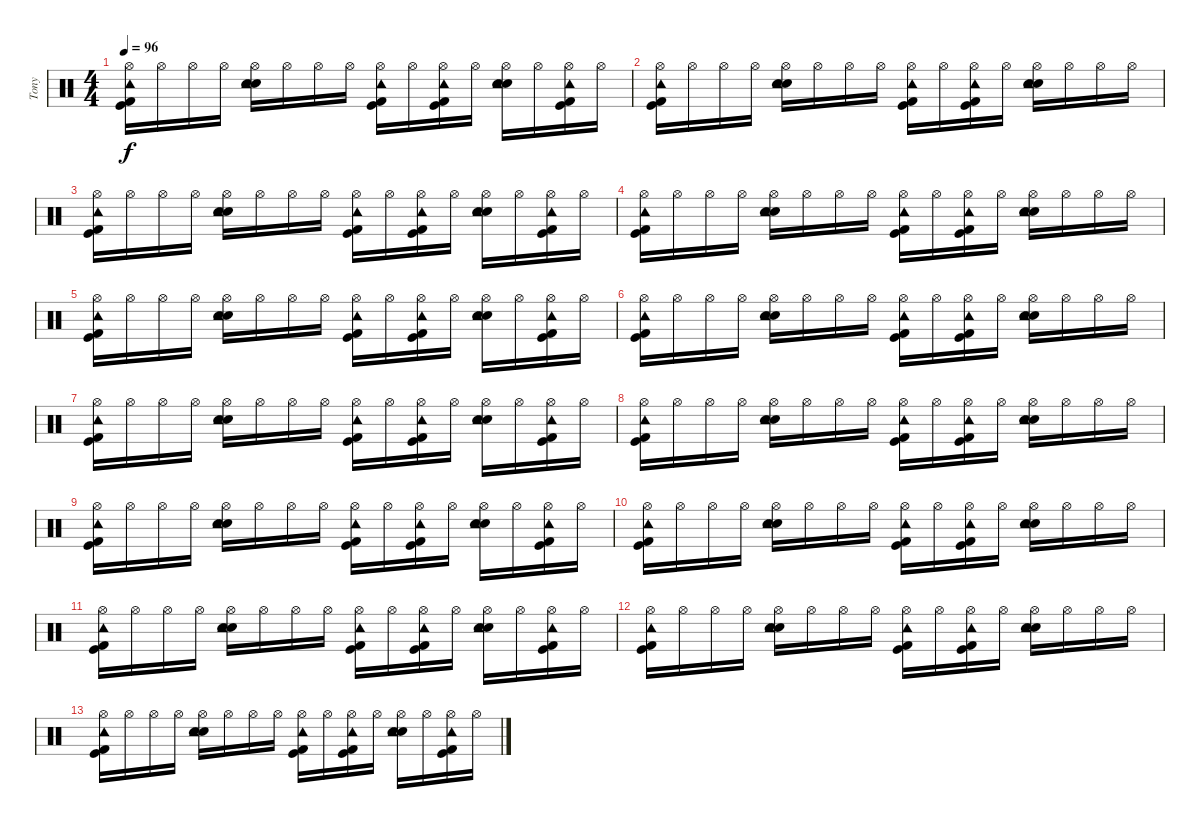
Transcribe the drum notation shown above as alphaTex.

\track ("Tony" "Tony") {instrument percussion}
\staff {score}
\articulation defaults
\ts (4 4)
\tempo 96
\clef neutral
\ks c
("Kick (hit)" "Kick (hit) 2" "Tambourine (hit)" "Hi-Hat (open)").16{dy f} "Hi-Hat (open)".16 "Hi-Hat (open)".16 "Hi-Hat (open)".16 ("Electric Snare (hit)" "Snare (hit) 2" "Tambourine (hit)" "Hi-Hat (open)").16 "Hi-Hat (open)".16 "Hi-Hat (open)".16 "Hi-Hat (open)".16 ("Kick (hit)" "Kick (hit) 2" "Tambourine (hit)" "Hi-Hat (open)").16 "Hi-Hat (open)".16 ("Kick (hit)" "Kick (hit) 2" "Tambourine (hit)" "Hi-Hat (open)").16 "Hi-Hat (open)".16 ("Electric Snare (hit)" "Snare (hit) 2" "Tambourine (hit)" "Hi-Hat (open)").16 "Hi-Hat (open)".16 ("Kick (hit)" "Kick (hit) 2" "Tambourine (hit)" "Hi-Hat (open)").16 "Hi-Hat (open)".16 |
("Kick (hit)" "Kick (hit) 2" "Tambourine (hit)" "Hi-Hat (open)").16 "Hi-Hat (open)".16 "Hi-Hat (open)".16 "Hi-Hat (open)".16 ("Electric Snare (hit)" "Snare (hit) 2" "Tambourine (hit)" "Hi-Hat (open)").16 "Hi-Hat (open)".16 "Hi-Hat (open)".16 "Hi-Hat (open)".16 ("Kick (hit)" "Kick (hit) 2" "Tambourine (hit)" "Hi-Hat (open)").16 "Hi-Hat (open)".16 ("Kick (hit)" "Kick (hit) 2" "Tambourine (hit)" "Hi-Hat (open)").16 "Hi-Hat (open)".16 ("Electric Snare (hit)" "Snare (hit) 2" "Tambourine (hit)" "Hi-Hat (open)").16 "Hi-Hat (open)".16 "Hi-Hat (open)".16 "Hi-Hat (open)".16 |
("Kick (hit)" "Kick (hit) 2" "Tambourine (hit)" "Hi-Hat (open)").16 "Hi-Hat (open)".16 "Hi-Hat (open)".16 "Hi-Hat (open)".16 ("Electric Snare (hit)" "Snare (hit) 2" "Tambourine (hit)" "Hi-Hat (open)").16 "Hi-Hat (open)".16 "Hi-Hat (open)".16 "Hi-Hat (open)".16 ("Kick (hit)" "Kick (hit) 2" "Tambourine (hit)" "Hi-Hat (open)").16 "Hi-Hat (open)".16 ("Kick (hit)" "Kick (hit) 2" "Tambourine (hit)" "Hi-Hat (open)").16 "Hi-Hat (open)".16 ("Electric Snare (hit)" "Snare (hit) 2" "Tambourine (hit)" "Hi-Hat (open)").16 "Hi-Hat (open)".16 ("Kick (hit)" "Kick (hit) 2" "Tambourine (hit)" "Hi-Hat (open)").16 "Hi-Hat (open)".16 |
("Kick (hit)" "Kick (hit) 2" "Tambourine (hit)" "Hi-Hat (open)").16 "Hi-Hat (open)".16 "Hi-Hat (open)".16 "Hi-Hat (open)".16 ("Electric Snare (hit)" "Snare (hit) 2" "Tambourine (hit)" "Hi-Hat (open)").16 "Hi-Hat (open)".16 "Hi-Hat (open)".16 "Hi-Hat (open)".16 ("Kick (hit)" "Kick (hit) 2" "Tambourine (hit)" "Hi-Hat (open)").16 "Hi-Hat (open)".16 ("Kick (hit)" "Kick (hit) 2" "Tambourine (hit)" "Hi-Hat (open)").16 "Hi-Hat (open)".16 ("Electric Snare (hit)" "Snare (hit) 2" "Tambourine (hit)" "Hi-Hat (open)").16 "Hi-Hat (open)".16 "Hi-Hat (open)".16 "Hi-Hat (open)".16 |
("Kick (hit)" "Kick (hit) 2" "Tambourine (hit)" "Hi-Hat (open)").16 "Hi-Hat (open)".16 "Hi-Hat (open)".16 "Hi-Hat (open)".16 ("Electric Snare (hit)" "Snare (hit) 2" "Tambourine (hit)" "Hi-Hat (open)").16 "Hi-Hat (open)".16 "Hi-Hat (open)".16 "Hi-Hat (open)".16 ("Kick (hit)" "Kick (hit) 2" "Tambourine (hit)" "Hi-Hat (open)").16 "Hi-Hat (open)".16 ("Kick (hit)" "Kick (hit) 2" "Tambourine (hit)" "Hi-Hat (open)").16 "Hi-Hat (open)".16 ("Electric Snare (hit)" "Snare (hit) 2" "Tambourine (hit)" "Hi-Hat (open)").16 "Hi-Hat (open)".16 ("Kick (hit)" "Kick (hit) 2" "Tambourine (hit)" "Hi-Hat (open)").16 "Hi-Hat (open)".16 |
("Kick (hit)" "Kick (hit) 2" "Tambourine (hit)" "Hi-Hat (open)").16 "Hi-Hat (open)".16 "Hi-Hat (open)".16 "Hi-Hat (open)".16 ("Electric Snare (hit)" "Snare (hit) 2" "Tambourine (hit)" "Hi-Hat (open)").16 "Hi-Hat (open)".16 "Hi-Hat (open)".16 "Hi-Hat (open)".16 ("Kick (hit)" "Kick (hit) 2" "Tambourine (hit)" "Hi-Hat (open)").16 "Hi-Hat (open)".16 ("Kick (hit)" "Kick (hit) 2" "Tambourine (hit)" "Hi-Hat (open)").16 "Hi-Hat (open)".16 ("Electric Snare (hit)" "Snare (hit) 2" "Tambourine (hit)" "Hi-Hat (open)").16 "Hi-Hat (open)".16 "Hi-Hat (open)".16 "Hi-Hat (open)".16 |
("Kick (hit)" "Kick (hit) 2" "Tambourine (hit)" "Hi-Hat (open)").16{volume 5} "Hi-Hat (open)".16 "Hi-Hat (open)".16 "Hi-Hat (open)".16 ("Electric Snare (hit)" "Snare (hit) 2" "Tambourine (hit)" "Hi-Hat (open)").16 "Hi-Hat (open)".16 "Hi-Hat (open)".16 "Hi-Hat (open)".16 ("Kick (hit)" "Kick (hit) 2" "Tambourine (hit)" "Hi-Hat (open)").16 "Hi-Hat (open)".16 ("Kick (hit)" "Kick (hit) 2" "Tambourine (hit)" "Hi-Hat (open)").16 "Hi-Hat (open)".16 ("Electric Snare (hit)" "Snare (hit) 2" "Tambourine (hit)" "Hi-Hat (open)").16 "Hi-Hat (open)".16 ("Kick (hit)" "Kick (hit) 2" "Tambourine (hit)" "Hi-Hat (open)").16 "Hi-Hat (open)".16 |
("Kick (hit)" "Kick (hit) 2" "Tambourine (hit)" "Hi-Hat (open)").16 "Hi-Hat (open)".16 "Hi-Hat (open)".16 "Hi-Hat (open)".16 ("Electric Snare (hit)" "Snare (hit) 2" "Tambourine (hit)" "Hi-Hat (open)").16 "Hi-Hat (open)".16 "Hi-Hat (open)".16 "Hi-Hat (open)".16 ("Kick (hit)" "Kick (hit) 2" "Tambourine (hit)" "Hi-Hat (open)").16 "Hi-Hat (open)".16 ("Kick (hit)" "Kick (hit) 2" "Tambourine (hit)" "Hi-Hat (open)").16 "Hi-Hat (open)".16 ("Electric Snare (hit)" "Snare (hit) 2" "Tambourine (hit)" "Hi-Hat (open)").16 "Hi-Hat (open)".16 "Hi-Hat (open)".16 "Hi-Hat (open)".16 |
("Kick (hit)" "Kick (hit) 2" "Tambourine (hit)" "Hi-Hat (open)").16{volume 0} "Hi-Hat (open)".16 "Hi-Hat (open)".16 "Hi-Hat (open)".16 ("Electric Snare (hit)" "Snare (hit) 2" "Tambourine (hit)" "Hi-Hat (open)").16 "Hi-Hat (open)".16 "Hi-Hat (open)".16 "Hi-Hat (open)".16 ("Kick (hit)" "Kick (hit) 2" "Tambourine (hit)" "Hi-Hat (open)").16 "Hi-Hat (open)".16 ("Kick (hit)" "Kick (hit) 2" "Tambourine (hit)" "Hi-Hat (open)").16 "Hi-Hat (open)".16 ("Electric Snare (hit)" "Snare (hit) 2" "Tambourine (hit)" "Hi-Hat (open)").16 "Hi-Hat (open)".16 ("Kick (hit)" "Kick (hit) 2" "Tambourine (hit)" "Hi-Hat (open)").16 "Hi-Hat (open)".16 |
("Kick (hit)" "Kick (hit) 2" "Tambourine (hit)" "Hi-Hat (open)").16 "Hi-Hat (open)".16 "Hi-Hat (open)".16 "Hi-Hat (open)".16 ("Electric Snare (hit)" "Snare (hit) 2" "Tambourine (hit)" "Hi-Hat (open)").16 "Hi-Hat (open)".16 "Hi-Hat (open)".16 "Hi-Hat (open)".16 ("Kick (hit)" "Kick (hit) 2" "Tambourine (hit)" "Hi-Hat (open)").16 "Hi-Hat (open)".16 ("Kick (hit)" "Kick (hit) 2" "Tambourine (hit)" "Hi-Hat (open)").16 "Hi-Hat (open)".16 ("Electric Snare (hit)" "Snare (hit) 2" "Tambourine (hit)" "Hi-Hat (open)").16 "Hi-Hat (open)".16 "Hi-Hat (open)".16 "Hi-Hat (open)".16 |
("Kick (hit)" "Kick (hit) 2" "Tambourine (hit)" "Hi-Hat (open)").16 "Hi-Hat (open)".16 "Hi-Hat (open)".16 "Hi-Hat (open)".16 ("Electric Snare (hit)" "Snare (hit) 2" "Tambourine (hit)" "Hi-Hat (open)").16 "Hi-Hat (open)".16 "Hi-Hat (open)".16 "Hi-Hat (open)".16 ("Kick (hit)" "Kick (hit) 2" "Tambourine (hit)" "Hi-Hat (open)").16 "Hi-Hat (open)".16 ("Kick (hit)" "Kick (hit) 2" "Tambourine (hit)" "Hi-Hat (open)").16 "Hi-Hat (open)".16 ("Electric Snare (hit)" "Snare (hit) 2" "Tambourine (hit)" "Hi-Hat (open)").16 "Hi-Hat (open)".16 ("Kick (hit)" "Kick (hit) 2" "Tambourine (hit)" "Hi-Hat (open)").16 "Hi-Hat (open)".16 |
("Kick (hit)" "Kick (hit) 2" "Tambourine (hit)" "Hi-Hat (open)").16 "Hi-Hat (open)".16 "Hi-Hat (open)".16 "Hi-Hat (open)".16 ("Electric Snare (hit)" "Snare (hit) 2" "Tambourine (hit)" "Hi-Hat (open)").16 "Hi-Hat (open)".16 "Hi-Hat (open)".16 "Hi-Hat (open)".16 ("Kick (hit)" "Kick (hit) 2" "Tambourine (hit)" "Hi-Hat (open)").16 "Hi-Hat (open)".16 ("Kick (hit)" "Kick (hit) 2" "Tambourine (hit)" "Hi-Hat (open)").16 "Hi-Hat (open)".16 ("Electric Snare (hit)" "Snare (hit) 2" "Tambourine (hit)" "Hi-Hat (open)").16 "Hi-Hat (open)".16 "Hi-Hat (open)".16 "Hi-Hat (open)".16 |
("Kick (hit)" "Kick (hit) 2" "Tambourine (hit)" "Hi-Hat (open)").16 "Hi-Hat (open)".16 "Hi-Hat (open)".16 "Hi-Hat (open)".16 ("Electric Snare (hit)" "Snare (hit) 2" "Tambourine (hit)" "Hi-Hat (open)").16 "Hi-Hat (open)".16 "Hi-Hat (open)".16 "Hi-Hat (open)".16 ("Kick (hit)" "Kick (hit) 2" "Tambourine (hit)" "Hi-Hat (open)").16 "Hi-Hat (open)".16 ("Kick (hit)" "Kick (hit) 2" "Tambourine (hit)" "Hi-Hat (open)").16 "Hi-Hat (open)".16 ("Electric Snare (hit)" "Snare (hit) 2" "Tambourine (hit)" "Hi-Hat (open)").16 "Hi-Hat (open)".16 ("Kick (hit)" "Kick (hit) 2" "Tambourine (hit)" "Hi-Hat (open)").16 "Hi-Hat (open)".16
